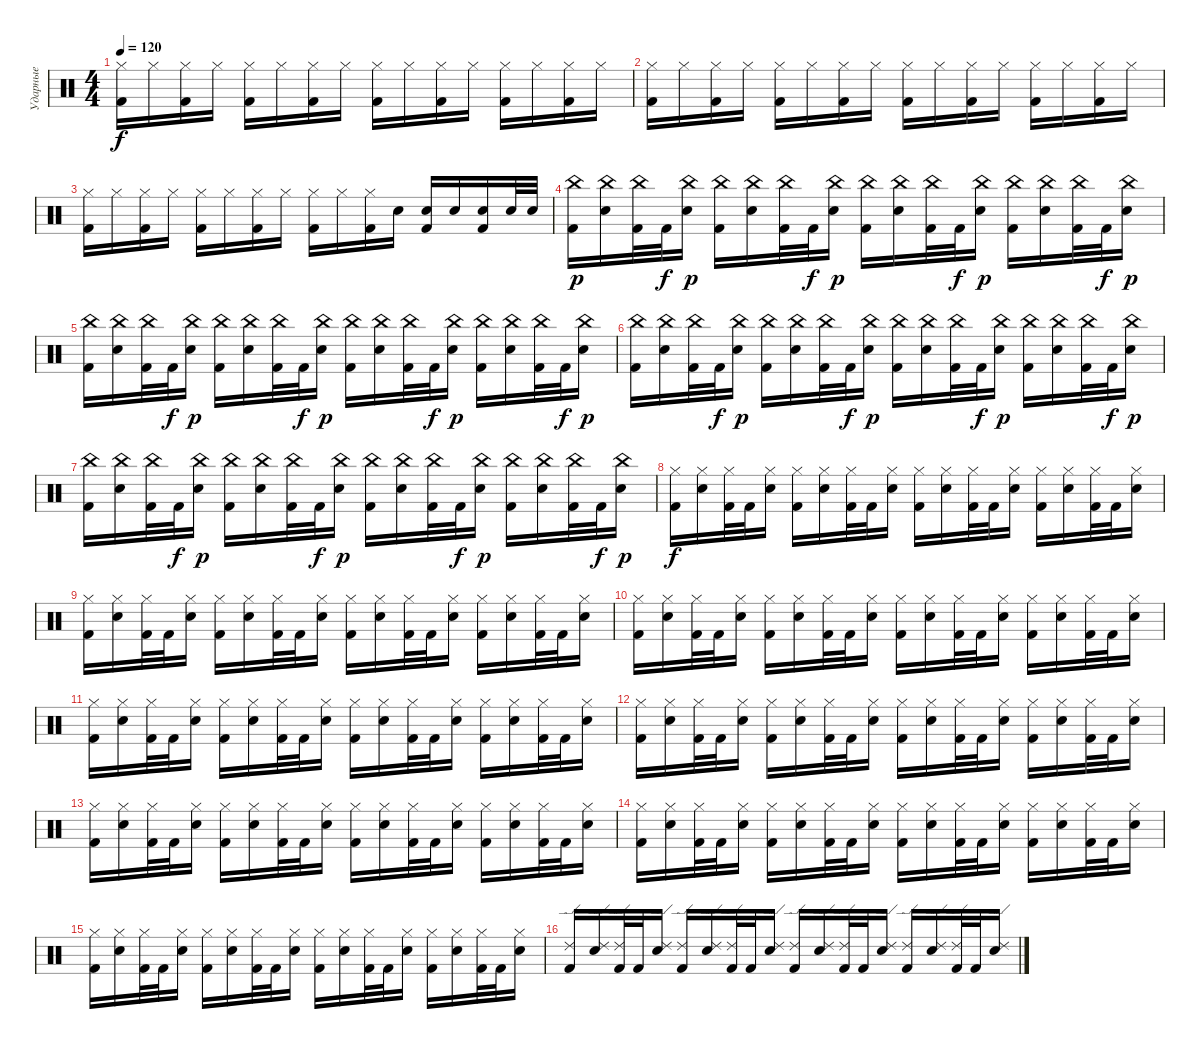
\track ("Ударные" "Ударные") {instrument percussion}
\staff {score}
\articulation defaults
\ts (4 4)
\tempo 120
\clef neutral
\ks c
("Hi-Hat (closed)" "Kick (hit) 2").16{dy f} "Hi-Hat (closed)".16 ("Hi-Hat (closed)" "Kick (hit) 2").16 "Hi-Hat (closed)".16 ("Hi-Hat (closed)" "Kick (hit) 2").16 "Hi-Hat (closed)".16 ("Hi-Hat (closed)" "Kick (hit) 2").16 "Hi-Hat (closed)".16 ("Hi-Hat (closed)" "Kick (hit) 2").16 "Hi-Hat (closed)".16 ("Hi-Hat (closed)" "Kick (hit) 2").16 "Hi-Hat (closed)".16 ("Hi-Hat (closed)" "Kick (hit) 2").16 "Hi-Hat (closed)".16 ("Hi-Hat (closed)" "Kick (hit) 2").16 "Hi-Hat (closed)".16 |
("Hi-Hat (closed)" "Kick (hit) 2").16 "Hi-Hat (closed)".16 ("Hi-Hat (closed)" "Kick (hit) 2").16 "Hi-Hat (closed)".16 ("Hi-Hat (closed)" "Kick (hit) 2").16 "Hi-Hat (closed)".16 ("Hi-Hat (closed)" "Kick (hit) 2").16 "Hi-Hat (closed)".16 ("Hi-Hat (closed)" "Kick (hit) 2").16 "Hi-Hat (closed)".16 ("Hi-Hat (closed)" "Kick (hit) 2").16 "Hi-Hat (closed)".16 ("Hi-Hat (closed)" "Kick (hit) 2").16 "Hi-Hat (closed)".16 ("Hi-Hat (closed)" "Kick (hit) 2").16 "Hi-Hat (closed)".16 |
("Hi-Hat (closed)" "Kick (hit) 2").16 "Hi-Hat (closed)".16 ("Hi-Hat (closed)" "Kick (hit) 2").16 "Hi-Hat (closed)".16 ("Hi-Hat (closed)" "Kick (hit) 2").16 "Hi-Hat (closed)".16 ("Hi-Hat (closed)" "Kick (hit) 2").16 "Hi-Hat (closed)".16 ("Hi-Hat (closed)" "Kick (hit) 2").16 "Hi-Hat (closed)".16 ("Hi-Hat (closed)" "Kick (hit) 2").16 "Electric Snare (hit)".16 ("Electric Snare (hit)" "Kick (hit) 2").16 "Electric Snare (hit)".16 ("Electric Snare (hit)" "Kick (hit) 2").16 "Electric Snare (hit)".32 "Electric Snare (hit)".32 |
("China (hit)" "Kick (hit) 2").16{dy p} ("China (hit)" "Electric Snare (hit)").16 ("China (hit)" "Kick (hit) 2").32 "Kick (hit) 2".32{dy f} ("China (hit)" "Electric Snare (hit)").16{dy p} ("China (hit)" "Kick (hit) 2").16 ("China (hit)" "Electric Snare (hit)").16 ("China (hit)" "Kick (hit) 2").32 "Kick (hit) 2".32{dy f} ("China (hit)" "Electric Snare (hit)").16{dy p} ("China (hit)" "Kick (hit) 2").16 ("China (hit)" "Electric Snare (hit)").16 ("China (hit)" "Kick (hit) 2").32 "Kick (hit) 2".32{dy f} ("China (hit)" "Electric Snare (hit)").16{dy p} ("China (hit)" "Kick (hit) 2").16 ("China (hit)" "Electric Snare (hit)").16 ("China (hit)" "Kick (hit) 2").32 "Kick (hit) 2".32{dy f} ("China (hit)" "Electric Snare (hit)").16{dy p} |
("China (hit)" "Kick (hit) 2").16 ("China (hit)" "Electric Snare (hit)").16 ("China (hit)" "Kick (hit) 2").32 "Kick (hit) 2".32{dy f} ("China (hit)" "Electric Snare (hit)").16{dy p} ("China (hit)" "Kick (hit) 2").16 ("China (hit)" "Electric Snare (hit)").16 ("China (hit)" "Kick (hit) 2").32 "Kick (hit) 2".32{dy f} ("China (hit)" "Electric Snare (hit)").16{dy p} ("China (hit)" "Kick (hit) 2").16 ("China (hit)" "Electric Snare (hit)").16 ("China (hit)" "Kick (hit) 2").32 "Kick (hit) 2".32{dy f} ("China (hit)" "Electric Snare (hit)").16{dy p} ("China (hit)" "Kick (hit) 2").16 ("China (hit)" "Electric Snare (hit)").16 ("China (hit)" "Kick (hit) 2").32 "Kick (hit) 2".32{dy f} ("China (hit)" "Electric Snare (hit)").16{dy p} |
("China (hit)" "Kick (hit) 2").16 ("China (hit)" "Electric Snare (hit)").16 ("China (hit)" "Kick (hit) 2").32 "Kick (hit) 2".32{dy f} ("China (hit)" "Electric Snare (hit)").16{dy p} ("China (hit)" "Kick (hit) 2").16 ("China (hit)" "Electric Snare (hit)").16 ("China (hit)" "Kick (hit) 2").32 "Kick (hit) 2".32{dy f} ("China (hit)" "Electric Snare (hit)").16{dy p} ("China (hit)" "Kick (hit) 2").16 ("China (hit)" "Electric Snare (hit)").16 ("China (hit)" "Kick (hit) 2").32 "Kick (hit) 2".32{dy f} ("China (hit)" "Electric Snare (hit)").16{dy p} ("China (hit)" "Kick (hit) 2").16 ("China (hit)" "Electric Snare (hit)").16 ("China (hit)" "Kick (hit) 2").32 "Kick (hit) 2".32{dy f} ("China (hit)" "Electric Snare (hit)").16{dy p} |
("China (hit)" "Kick (hit) 2").16 ("China (hit)" "Electric Snare (hit)").16 ("China (hit)" "Kick (hit) 2").32 "Kick (hit) 2".32{dy f} ("China (hit)" "Electric Snare (hit)").16{dy p} ("China (hit)" "Kick (hit) 2").16 ("China (hit)" "Electric Snare (hit)").16 ("China (hit)" "Kick (hit) 2").32 "Kick (hit) 2".32{dy f} ("China (hit)" "Electric Snare (hit)").16{dy p} ("China (hit)" "Kick (hit) 2").16 ("China (hit)" "Electric Snare (hit)").16 ("China (hit)" "Kick (hit) 2").32 "Kick (hit) 2".32{dy f} ("China (hit)" "Electric Snare (hit)").16{dy p} ("China (hit)" "Kick (hit) 2").16 ("China (hit)" "Electric Snare (hit)").16 ("China (hit)" "Kick (hit) 2").32 "Kick (hit) 2".32{dy f} ("China (hit)" "Electric Snare (hit)").16{dy p} |
("Hi-Hat (closed)" "Kick (hit) 2").16{dy f} ("Hi-Hat (closed)" "Electric Snare (hit)").16 ("Hi-Hat (closed)" "Kick (hit) 2").32 "Kick (hit) 2".32 ("Hi-Hat (closed)" "Electric Snare (hit)").16 ("Hi-Hat (closed)" "Kick (hit) 2").16 ("Hi-Hat (closed)" "Electric Snare (hit)").16 ("Hi-Hat (closed)" "Kick (hit) 2").32 "Kick (hit) 2".32 ("Hi-Hat (closed)" "Electric Snare (hit)").16 ("Hi-Hat (closed)" "Kick (hit) 2").16 ("Hi-Hat (closed)" "Electric Snare (hit)").16 ("Hi-Hat (closed)" "Kick (hit) 2").32 "Kick (hit) 2".32 ("Hi-Hat (closed)" "Electric Snare (hit)").16 ("Hi-Hat (closed)" "Kick (hit) 2").16 ("Hi-Hat (closed)" "Electric Snare (hit)").16 ("Hi-Hat (closed)" "Kick (hit) 2").32 "Kick (hit) 2".32 ("Hi-Hat (closed)" "Electric Snare (hit)").16 |
("Hi-Hat (closed)" "Kick (hit) 2").16 ("Hi-Hat (closed)" "Electric Snare (hit)").16 ("Hi-Hat (closed)" "Kick (hit) 2").32 "Kick (hit) 2".32 ("Hi-Hat (closed)" "Electric Snare (hit)").16 ("Hi-Hat (closed)" "Kick (hit) 2").16 ("Hi-Hat (closed)" "Electric Snare (hit)").16 ("Hi-Hat (closed)" "Kick (hit) 2").32 "Kick (hit) 2".32 ("Hi-Hat (closed)" "Electric Snare (hit)").16 ("Hi-Hat (closed)" "Kick (hit) 2").16 ("Hi-Hat (closed)" "Electric Snare (hit)").16 ("Hi-Hat (closed)" "Kick (hit) 2").32 "Kick (hit) 2".32 ("Hi-Hat (closed)" "Electric Snare (hit)").16 ("Hi-Hat (closed)" "Kick (hit) 2").16 ("Hi-Hat (closed)" "Electric Snare (hit)").16 ("Hi-Hat (closed)" "Kick (hit) 2").32 "Kick (hit) 2".32 ("Hi-Hat (closed)" "Electric Snare (hit)").16 |
("Hi-Hat (closed)" "Kick (hit) 2").16 ("Hi-Hat (closed)" "Electric Snare (hit)").16 ("Hi-Hat (closed)" "Kick (hit) 2").32 "Kick (hit) 2".32 ("Hi-Hat (closed)" "Electric Snare (hit)").16 ("Hi-Hat (closed)" "Kick (hit) 2").16 ("Hi-Hat (closed)" "Electric Snare (hit)").16 ("Hi-Hat (closed)" "Kick (hit) 2").32 "Kick (hit) 2".32 ("Hi-Hat (closed)" "Electric Snare (hit)").16 ("Hi-Hat (closed)" "Kick (hit) 2").16 ("Hi-Hat (closed)" "Electric Snare (hit)").16 ("Hi-Hat (closed)" "Kick (hit) 2").32 "Kick (hit) 2".32 ("Hi-Hat (closed)" "Electric Snare (hit)").16 ("Hi-Hat (closed)" "Kick (hit) 2").16 ("Hi-Hat (closed)" "Electric Snare (hit)").16 ("Hi-Hat (closed)" "Kick (hit) 2").32 "Kick (hit) 2".32 ("Hi-Hat (closed)" "Electric Snare (hit)").16 |
("Hi-Hat (closed)" "Kick (hit) 2").16 ("Hi-Hat (closed)" "Electric Snare (hit)").16 ("Hi-Hat (closed)" "Kick (hit) 2").32 "Kick (hit) 2".32 ("Hi-Hat (closed)" "Electric Snare (hit)").16 ("Hi-Hat (closed)" "Kick (hit) 2").16 ("Hi-Hat (closed)" "Electric Snare (hit)").16 ("Hi-Hat (closed)" "Kick (hit) 2").32 "Kick (hit) 2".32 ("Hi-Hat (closed)" "Electric Snare (hit)").16 ("Hi-Hat (closed)" "Kick (hit) 2").16 ("Hi-Hat (closed)" "Electric Snare (hit)").16 ("Hi-Hat (closed)" "Kick (hit) 2").32 "Kick (hit) 2".32 ("Hi-Hat (closed)" "Electric Snare (hit)").16 ("Hi-Hat (closed)" "Kick (hit) 2").16 ("Hi-Hat (closed)" "Electric Snare (hit)").16 ("Hi-Hat (closed)" "Kick (hit) 2").32 "Kick (hit) 2".32 ("Hi-Hat (closed)" "Electric Snare (hit)").16 |
("Hi-Hat (closed)" "Kick (hit) 2").16 ("Hi-Hat (closed)" "Electric Snare (hit)").16 ("Hi-Hat (closed)" "Kick (hit) 2").32 "Kick (hit) 2".32 ("Hi-Hat (closed)" "Electric Snare (hit)").16 ("Hi-Hat (closed)" "Kick (hit) 2").16 ("Hi-Hat (closed)" "Electric Snare (hit)").16 ("Hi-Hat (closed)" "Kick (hit) 2").32 "Kick (hit) 2".32 ("Hi-Hat (closed)" "Electric Snare (hit)").16 ("Hi-Hat (closed)" "Kick (hit) 2").16 ("Hi-Hat (closed)" "Electric Snare (hit)").16 ("Hi-Hat (closed)" "Kick (hit) 2").32 "Kick (hit) 2".32 ("Hi-Hat (closed)" "Electric Snare (hit)").16 ("Hi-Hat (closed)" "Kick (hit) 2").16 ("Hi-Hat (closed)" "Electric Snare (hit)").16 ("Hi-Hat (closed)" "Kick (hit) 2").32 "Kick (hit) 2".32 ("Hi-Hat (closed)" "Electric Snare (hit)").16 |
("Hi-Hat (closed)" "Kick (hit) 2").16 ("Hi-Hat (closed)" "Electric Snare (hit)").16 ("Hi-Hat (closed)" "Kick (hit) 2").32 "Kick (hit) 2".32 ("Hi-Hat (closed)" "Electric Snare (hit)").16 ("Hi-Hat (closed)" "Kick (hit) 2").16 ("Hi-Hat (closed)" "Electric Snare (hit)").16 ("Hi-Hat (closed)" "Kick (hit) 2").32 "Kick (hit) 2".32 ("Hi-Hat (closed)" "Electric Snare (hit)").16 ("Hi-Hat (closed)" "Kick (hit) 2").16 ("Hi-Hat (closed)" "Electric Snare (hit)").16 ("Hi-Hat (closed)" "Kick (hit) 2").32 "Kick (hit) 2".32 ("Hi-Hat (closed)" "Electric Snare (hit)").16 ("Hi-Hat (closed)" "Kick (hit) 2").16 ("Hi-Hat (closed)" "Electric Snare (hit)").16 ("Hi-Hat (closed)" "Kick (hit) 2").32 "Kick (hit) 2".32 ("Hi-Hat (closed)" "Electric Snare (hit)").16 |
("Hi-Hat (closed)" "Kick (hit) 2").16 ("Hi-Hat (closed)" "Electric Snare (hit)").16 ("Hi-Hat (closed)" "Kick (hit) 2").32 "Kick (hit) 2".32 ("Hi-Hat (closed)" "Electric Snare (hit)").16 ("Hi-Hat (closed)" "Kick (hit) 2").16 ("Hi-Hat (closed)" "Electric Snare (hit)").16 ("Hi-Hat (closed)" "Kick (hit) 2").32 "Kick (hit) 2".32 ("Hi-Hat (closed)" "Electric Snare (hit)").16 ("Hi-Hat (closed)" "Kick (hit) 2").16 ("Hi-Hat (closed)" "Electric Snare (hit)").16 ("Hi-Hat (closed)" "Kick (hit) 2").32 "Kick (hit) 2".32 ("Hi-Hat (closed)" "Electric Snare (hit)").16 ("Hi-Hat (closed)" "Kick (hit) 2").16 ("Hi-Hat (closed)" "Electric Snare (hit)").16 ("Hi-Hat (closed)" "Kick (hit) 2").32 "Kick (hit) 2".32 ("Hi-Hat (closed)" "Electric Snare (hit)").16 |
("Hi-Hat (closed)" "Kick (hit) 2").16 ("Hi-Hat (closed)" "Electric Snare (hit)").16 ("Hi-Hat (closed)" "Kick (hit) 2").32 "Kick (hit) 2".32 ("Hi-Hat (closed)" "Electric Snare (hit)").16 ("Hi-Hat (closed)" "Kick (hit) 2").16 ("Hi-Hat (closed)" "Electric Snare (hit)").16 ("Hi-Hat (closed)" "Kick (hit) 2").32 "Kick (hit) 2".32 ("Hi-Hat (closed)" "Electric Snare (hit)").16 ("Hi-Hat (closed)" "Kick (hit) 2").16 ("Hi-Hat (closed)" "Electric Snare (hit)").16 ("Hi-Hat (closed)" "Kick (hit) 2").32 "Kick (hit) 2".32 ("Hi-Hat (closed)" "Electric Snare (hit)").16 ("Hi-Hat (closed)" "Kick (hit) 2").16 ("Hi-Hat (closed)" "Electric Snare (hit)").16 ("Hi-Hat (closed)" "Kick (hit) 2").32 "Kick (hit) 2".32 ("Hi-Hat (closed)" "Electric Snare (hit)").16 |
("Ride (edge) 2" "Kick (hit) 2").16 ("Ride (edge) 2" "Electric Snare (hit)").16 ("Ride (edge) 2" "Kick (hit) 2").32 "Kick (hit) 2".32 ("Ride (edge) 2" "Electric Snare (hit)").16 ("Ride (edge) 2" "Kick (hit) 2").16 ("Ride (edge) 2" "Electric Snare (hit)").16 ("Ride (edge) 2" "Kick (hit) 2").32 "Kick (hit) 2".32 ("Ride (edge) 2" "Electric Snare (hit)").16 ("Ride (edge) 2" "Kick (hit) 2").16 ("Ride (edge) 2" "Electric Snare (hit)").16 ("Ride (edge) 2" "Kick (hit) 2").32 "Kick (hit) 2".32 ("Ride (edge) 2" "Electric Snare (hit)").16 ("Ride (edge) 2" "Kick (hit) 2").16 ("Ride (edge) 2" "Electric Snare (hit)").16 ("Ride (edge) 2" "Kick (hit) 2").32 "Kick (hit) 2".32 ("Ride (edge) 2" "Electric Snare (hit)").16
